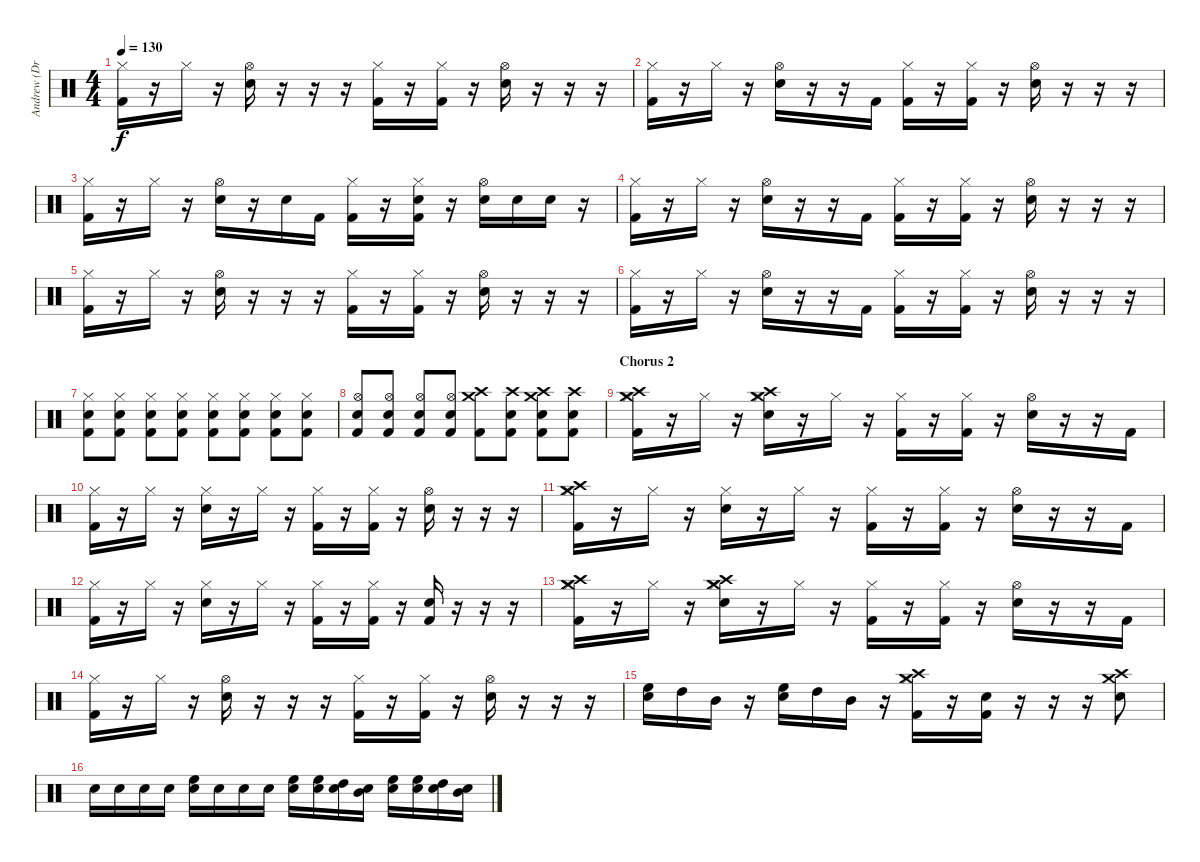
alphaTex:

\track ("Andrew (Drums)" "Andrew (Dr") {instrument percussion}
\staff {score}
\articulation defaults
\ts (4 4)
\tempo 130
\clef neutral
\ks c
("Hi-Hat (closed)" "Kick (hit) 2").16{dy f} r.16 "Hi-Hat (closed)".16 r.16 ("Hi-Hat (open)" "Snare (hit) 2").16 r.16 r.16 r.16 ("Hi-Hat (closed)" "Kick (hit) 2").16 r.16 ("Hi-Hat (closed)" "Kick (hit) 2").16 r.16 ("Hi-Hat (open)" "Snare (hit) 2").16 r.16 r.16 r.16 |
("Hi-Hat (closed)" "Kick (hit) 2").16 r.16 "Hi-Hat (closed)".16 r.16 ("Hi-Hat (open)" "Snare (hit) 2").16 r.16 r.16 "Kick (hit) 2".16 ("Hi-Hat (closed)" "Kick (hit) 2").16 r.16 ("Hi-Hat (closed)" "Kick (hit) 2").16 r.16 ("Hi-Hat (open)" "Snare (hit) 2").16 r.16 r.16 r.16 |
("Hi-Hat (closed)" "Kick (hit) 2").16 r.16 "Hi-Hat (closed)".16 r.16 ("Hi-Hat (open)" "Snare (hit) 2").16 r.16 "Snare (hit) 2".16 "Kick (hit) 2".16 ("Hi-Hat (closed)" "Kick (hit) 2").16 r.16 ("Hi-Hat (closed)" "Snare (hit) 2" "Kick (hit) 2").16 r.16 ("Hi-Hat (open)" "Snare (hit) 2").16 "Snare (hit) 2".16 "Snare (hit) 2".16 r.16 |
("Hi-Hat (closed)" "Kick (hit) 2").16 r.16 "Hi-Hat (closed)".16 r.16 ("Hi-Hat (open)" "Snare (hit) 2").16 r.16 r.16 "Kick (hit) 2".16 ("Hi-Hat (closed)" "Kick (hit) 2").16 r.16 ("Hi-Hat (closed)" "Kick (hit) 2").16 r.16 ("Hi-Hat (open)" "Snare (hit) 2").16 r.16 r.16 r.16 |
("Hi-Hat (closed)" "Kick (hit) 2").16 r.16 "Hi-Hat (closed)".16 r.16 ("Hi-Hat (open)" "Snare (hit) 2").16 r.16 r.16 r.16 ("Hi-Hat (closed)" "Kick (hit) 2").16 r.16 ("Hi-Hat (closed)" "Kick (hit) 2").16 r.16 ("Hi-Hat (open)" "Snare (hit) 2").16 r.16 r.16 r.16 |
("Hi-Hat (closed)" "Kick (hit) 2").16 r.16 "Hi-Hat (closed)".16 r.16 ("Hi-Hat (open)" "Snare (hit) 2").16 r.16 r.16 "Kick (hit) 2".16 ("Hi-Hat (closed)" "Kick (hit) 2").16 r.16 ("Hi-Hat (closed)" "Kick (hit) 2").16 r.16 ("Hi-Hat (open)" "Snare (hit) 2").16 r.16 r.16 r.16 |
("Hi-Hat (closed)" "Snare (hit) 2" "Kick (hit) 2").8 ("Hi-Hat (closed)" "Snare (hit) 2" "Kick (hit) 2").8 ("Hi-Hat (closed)" "Snare (hit) 2" "Kick (hit) 2").8 ("Hi-Hat (closed)" "Snare (hit) 2" "Kick (hit) 2").8 ("Hi-Hat (closed)" "Snare (hit) 2" "Kick (hit) 2").8 ("Hi-Hat (closed)" "Snare (hit) 2" "Kick (hit) 2").8 ("Hi-Hat (closed)" "Snare (hit) 2" "Kick (hit) 2").8 ("Hi-Hat (closed)" "Snare (hit) 2" "Kick (hit) 2").8 |
("Hi-Hat (open)" "Snare (hit) 2" "Kick (hit) 2").8 ("Hi-Hat (open)" "Snare (hit) 2" "Kick (hit) 2").8 ("Hi-Hat (open)" "Snare (hit) 2" "Kick (hit) 2").8 ("Hi-Hat (open)" "Snare (hit) 2" "Kick (hit) 2").8 ("Crash medium (hit)" "Crash high (hit)" "Kick (hit) 2").8 ("Crash high (hit)" "Snare (hit) 2" "Kick (hit) 2").8 ("Crash medium (hit)" "Crash high (hit)" "Snare (hit) 2" "Kick (hit) 2").8 ("Crash high (hit)" "Snare (hit) 2" "Kick (hit) 2").8 |
\section ("" "Chorus 2")
("Crash high (hit)" "Crash medium (hit)" "Hi-Hat (closed)" "Kick (hit) 2").16 r.16 "Hi-Hat (closed)".16 r.16 ("Crash high (hit)" "Crash medium (hit)" "Hi-Hat (closed)" "Snare (hit) 2").16 r.16 "Hi-Hat (closed)".16 r.16 ("Hi-Hat (closed)" "Kick (hit) 2").16 r.16 ("Hi-Hat (closed)" "Kick (hit) 2").16 r.16 ("Hi-Hat (open)" "Snare (hit) 2").16 r.16 r.16 "Kick (hit) 2".16 |
("Hi-Hat (closed)" "Kick (hit) 2").16 r.16 "Hi-Hat (closed)".16 r.16 ("Hi-Hat (closed)" "Snare (hit) 2").16 r.16 "Hi-Hat (closed)".16 r.16 ("Hi-Hat (closed)" "Kick (hit) 2").16 r.16 ("Hi-Hat (closed)" "Kick (hit) 2").16 r.16 ("Hi-Hat (open)" "Snare (hit) 2").16 r.16 r.16 r.16 |
("Crash high (hit)" "Crash medium (hit)" "Hi-Hat (closed)" "Kick (hit) 2").16 r.16 "Hi-Hat (closed)".16 r.16 ("Hi-Hat (closed)" "Snare (hit) 2").16 r.16 "Hi-Hat (closed)".16 r.16 ("Hi-Hat (closed)" "Kick (hit) 2").16 r.16 ("Hi-Hat (closed)" "Kick (hit) 2").16 r.16 ("Hi-Hat (open)" "Snare (hit) 2").16 r.16 r.16 "Kick (hit) 2".16 |
("Hi-Hat (closed)" "Kick (hit) 2").16 r.16 "Hi-Hat (closed)".16 r.16 ("Hi-Hat (closed)" "Snare (hit) 2").16 r.16 "Hi-Hat (closed)".16 r.16 ("Hi-Hat (closed)" "Kick (hit) 2").16 r.16 ("Hi-Hat (closed)" "Kick (hit) 2").16 r.16 ("Snare (hit) 2" "Kick (hit) 2").16 r.16 r.16 r.16 |
("Crash high (hit)" "Crash medium (hit)" "Hi-Hat (closed)" "Kick (hit) 2").16 r.16 "Hi-Hat (closed)".16 r.16 ("Crash high (hit)" "Crash medium (hit)" "Hi-Hat (closed)" "Snare (hit) 2").16 r.16 "Hi-Hat (closed)".16 r.16 ("Hi-Hat (closed)" "Kick (hit) 2").16 r.16 ("Hi-Hat (closed)" "Kick (hit) 2").16 r.16 ("Hi-Hat (open)" "Snare (hit) 2").16 r.16 r.16 "Kick (hit) 2".16 |
("Hi-Hat (closed)" "Kick (hit) 2").16 r.16 "Hi-Hat (closed)".16 r.16 ("Hi-Hat (open)" "Snare (hit) 2").16 r.16 r.16 r.16 ("Hi-Hat (closed)" "Kick (hit) 2").16 r.16 ("Hi-Hat (closed)" "Kick (hit) 2").16 r.16 ("Hi-Hat (open)" "Snare (hit) 2").16 r.16 r.16 r.16 |
("High Floor Tom (hit)" "Snare (hit) 2").16 "High Tom (hit)".16 "Mid Tom (hit)".16 r.16 ("High Floor Tom (hit)" "Snare (hit) 2").16 "High Tom (hit)".16 "Mid Tom (hit)".16 r.16 ("Crash high (hit)" "Crash medium (hit)" "Hi-Hat (closed)" "Kick (hit) 2").16 r.16 ("Kick (hit) 2" "Snare (hit) 2").16 r.16 r.16 r.16 ("Crash medium (hit)" "Crash high (hit)" "Snare (hit) 2").8 |
"Snare (hit) 2".16 "Snare (hit) 2".16 "Snare (hit) 2".16 "Snare (hit) 2".16 ("High Floor Tom (hit)" "Snare (hit) 2").16 "Snare (hit) 2".16 "Snare (hit) 2".16 "Snare (hit) 2".16 ("High Floor Tom (hit)" "Snare (hit) 2").16 ("High Floor Tom (hit)" "Snare (hit) 2").16 ("High Tom (hit)" "Snare (hit) 2").16 ("Mid Tom (hit)" "Snare (hit) 2").16 ("High Floor Tom (hit)" "Snare (hit) 2").16 ("High Floor Tom (hit)" "Snare (hit) 2").16 ("High Tom (hit)" "Snare (hit) 2").16 ("Mid Tom (hit)" "Snare (hit) 2").16
